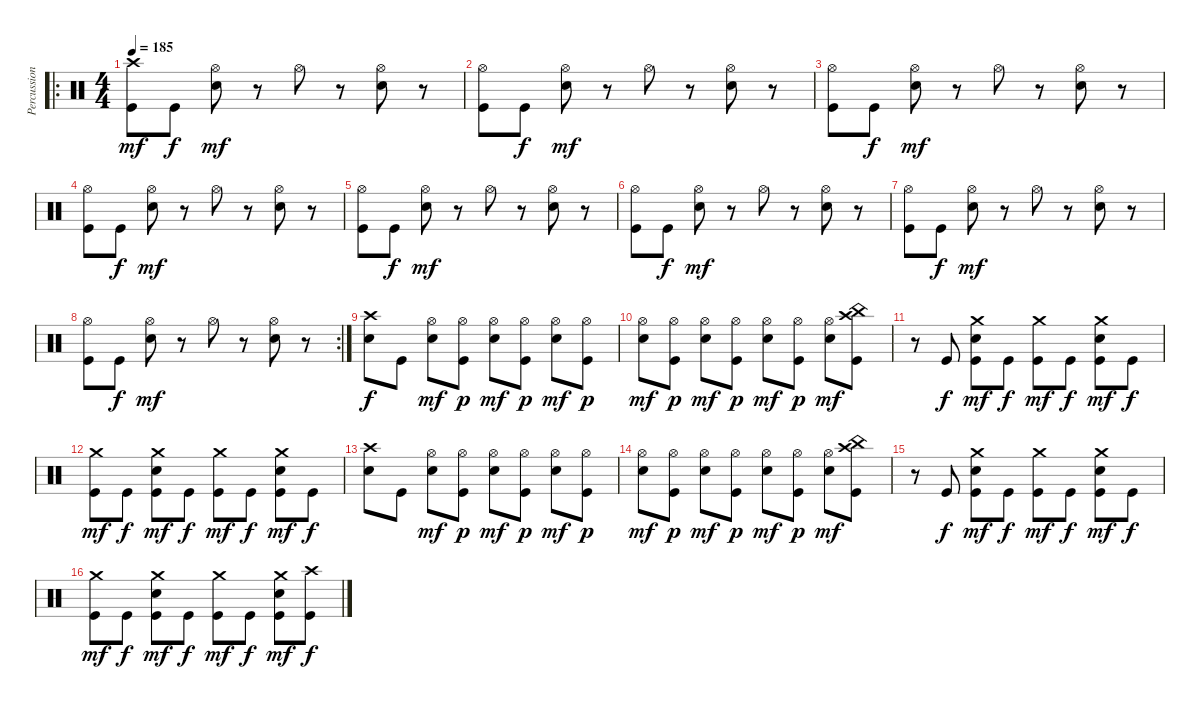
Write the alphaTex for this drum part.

\track ("Percussions" "Percussion") {instrument percussion}
\staff {score}
\articulation defaults
\ro
\ts (4 4)
\tempo 185
\clef neutral
\ks c
("Kick (hit)" "Crash high (hit)").8{dy mf} "Kick (hit)".8{dy f} ("Electric Snare (hit)" "Hi-Hat (open)").8{dy mf} r.8 "Hi-Hat (open)".8 r.8 ("Electric Snare (hit)" "Hi-Hat (open)").8 r.8 |
("Kick (hit)" "Hi-Hat (open)").8 "Kick (hit)".8{dy f} ("Electric Snare (hit)" "Hi-Hat (open)").8{dy mf} r.8 "Hi-Hat (open)".8 r.8 ("Electric Snare (hit)" "Hi-Hat (open)").8 r.8 |
("Kick (hit)" "Hi-Hat (open)").8 "Kick (hit)".8{dy f} ("Electric Snare (hit)" "Hi-Hat (open)").8{dy mf} r.8 "Hi-Hat (open)".8 r.8 ("Electric Snare (hit)" "Hi-Hat (open)").8 r.8 |
("Kick (hit)" "Hi-Hat (open)").8 "Kick (hit)".8{dy f} ("Electric Snare (hit)" "Hi-Hat (open)").8{dy mf} r.8 "Hi-Hat (open)".8 r.8 ("Electric Snare (hit)" "Hi-Hat (open)").8 r.8 |
("Kick (hit)" "Hi-Hat (open)").8 "Kick (hit)".8{dy f} ("Electric Snare (hit)" "Hi-Hat (open)").8{dy mf} r.8 "Hi-Hat (open)".8 r.8 ("Electric Snare (hit)" "Hi-Hat (open)").8 r.8 |
("Kick (hit)" "Hi-Hat (open)").8 "Kick (hit)".8{dy f} ("Electric Snare (hit)" "Hi-Hat (open)").8{dy mf} r.8 "Hi-Hat (open)".8 r.8 ("Electric Snare (hit)" "Hi-Hat (open)").8 r.8 |
("Kick (hit)" "Hi-Hat (open)").8 "Kick (hit)".8{dy f} ("Electric Snare (hit)" "Hi-Hat (open)").8{dy mf} r.8 "Hi-Hat (open)".8 r.8 ("Electric Snare (hit)" "Hi-Hat (open)").8 r.8 |
\rc 2
("Kick (hit)" "Hi-Hat (open)").8 "Kick (hit)".8{dy f} ("Electric Snare (hit)" "Hi-Hat (open)").8{dy mf} r.8 "Hi-Hat (open)".8 r.8 ("Electric Snare (hit)" "Hi-Hat (open)").8 r.8 |
("Electric Snare (hit)" "Crash high (hit)").8{dy f} "Kick (hit)".8 ("Electric Snare (hit)" "Hi-Hat (open)").8{dy mf} ("Kick (hit)" "Hi-Hat (open)").8{dy p} ("Electric Snare (hit)" "Hi-Hat (open)").8{dy mf} ("Kick (hit)" "Hi-Hat (open)").8{dy p} ("Electric Snare (hit)" "Hi-Hat (open)").8{dy mf} ("Kick (hit)" "Hi-Hat (open)").8{dy p} |
("Electric Snare (hit)" "Hi-Hat (open)").8{dy mf} ("Kick (hit)" "Hi-Hat (open)").8{dy p} ("Electric Snare (hit)" "Hi-Hat (open)").8{dy mf} ("Kick (hit)" "Hi-Hat (open)").8{dy p} ("Electric Snare (hit)" "Hi-Hat (open)").8{dy mf} ("Kick (hit)" "Hi-Hat (open)").8{dy p} ("Electric Snare (hit)" "Hi-Hat (open)").8{dy mf} ("Kick (hit)" "China (hit)" "Crash high (hit)").8 |
r.8 "Kick (hit)".8{dy f} ("Kick (hit)" "Electric Snare (hit)" "Crash medium (hit)").8{dy mf} "Kick (hit)".8{dy f} ("Kick (hit)" "Crash medium (hit)").8{dy mf} "Kick (hit)".8{dy f} ("Kick (hit)" "Electric Snare (hit)" "Crash medium (hit)").8{dy mf} "Kick (hit)".8{dy f} |
("Kick (hit)" "Crash medium (hit)").8{dy mf} "Kick (hit)".8{dy f} ("Kick (hit)" "Electric Snare (hit)" "Crash medium (hit)").8{dy mf} "Kick (hit)".8{dy f} ("Kick (hit)" "Crash medium (hit)").8{dy mf} "Kick (hit)".8{dy f} ("Kick (hit)" "Electric Snare (hit)" "Crash medium (hit)").8{dy mf} "Kick (hit)".8{dy f} |
("Electric Snare (hit)" "Crash high (hit)").8 "Kick (hit)".8 ("Electric Snare (hit)" "Hi-Hat (open)").8{dy mf} ("Kick (hit)" "Hi-Hat (open)").8{dy p} ("Electric Snare (hit)" "Hi-Hat (open)").8{dy mf} ("Kick (hit)" "Hi-Hat (open)").8{dy p} ("Electric Snare (hit)" "Hi-Hat (open)").8{dy mf} ("Kick (hit)" "Hi-Hat (open)").8{dy p} |
("Electric Snare (hit)" "Hi-Hat (open)").8{dy mf} ("Kick (hit)" "Hi-Hat (open)").8{dy p} ("Electric Snare (hit)" "Hi-Hat (open)").8{dy mf} ("Kick (hit)" "Hi-Hat (open)").8{dy p} ("Electric Snare (hit)" "Hi-Hat (open)").8{dy mf} ("Kick (hit)" "Hi-Hat (open)").8{dy p} ("Electric Snare (hit)" "Hi-Hat (open)").8{dy mf} ("Kick (hit)" "China (hit)" "Crash high (hit)").8 |
r.8 "Kick (hit)".8{dy f} ("Kick (hit)" "Electric Snare (hit)" "Crash medium (hit)").8{dy mf} "Kick (hit)".8{dy f} ("Kick (hit)" "Crash medium (hit)").8{dy mf} "Kick (hit)".8{dy f} ("Kick (hit)" "Electric Snare (hit)" "Crash medium (hit)").8{dy mf} "Kick (hit)".8{dy f} |
("Kick (hit)" "Crash medium (hit)").8{dy mf} "Kick (hit)".8{dy f} ("Kick (hit)" "Electric Snare (hit)" "Crash medium (hit)").8{dy mf} "Kick (hit)".8{dy f} ("Kick (hit)" "Crash medium (hit)").8{dy mf} "Kick (hit)".8{dy f} ("Kick (hit)" "Electric Snare (hit)" "Crash medium (hit)").8{dy mf} ("Kick (hit)" "Crash high (hit)").8{dy f}
